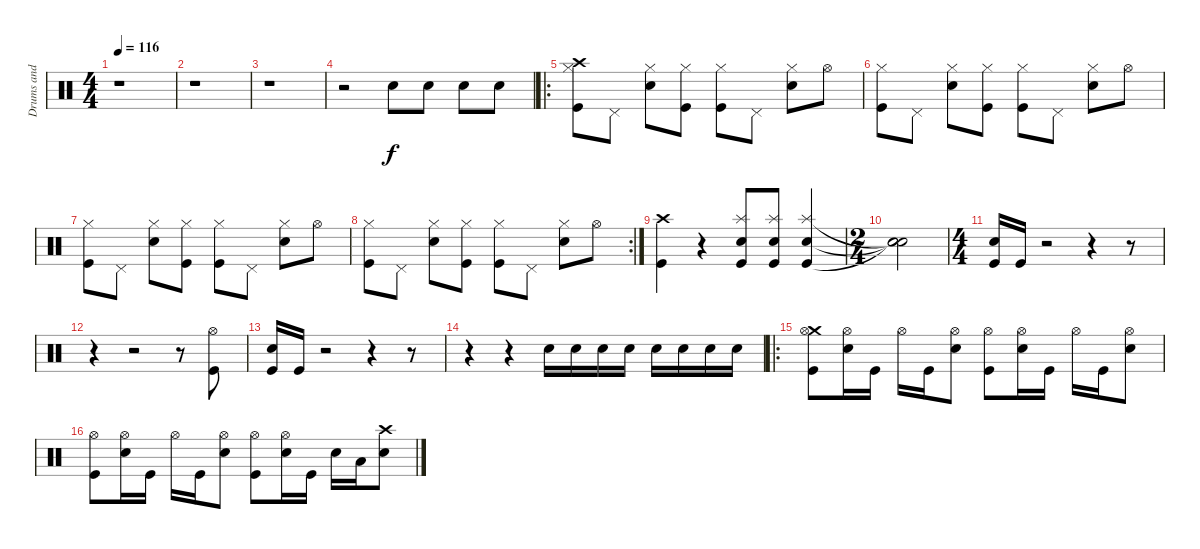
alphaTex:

\track ("Drums and Percussions" "Drums and ") {instrument percussion}
\staff {score}
\articulation defaults
\ts (4 4)
\tempo 116
\clef neutral
\ks c
r.1{dy f} |
r.1 |
r.1 |
r.2 "Electric Snare (hit)".8 "Electric Snare (hit)".8 "Electric Snare (hit)".8 "Electric Snare (hit)".8 |
\ro
("Crash high (hit)" "Hi-Hat (closed)" "Kick (hit)").8 "Pedal Hi-Hat (hit)".8 ("Electric Snare (hit)" "Hi-Hat (closed)").8 ("Hi-Hat (closed)" "Kick (hit)").8 ("Hi-Hat (closed)" "Kick (hit)").8 "Pedal Hi-Hat (hit)".8 ("Electric Snare (hit)" "Hi-Hat (closed)").8 "Hi-Hat (open)".8 |
("Hi-Hat (closed)" "Kick (hit)").8 "Pedal Hi-Hat (hit)".8 ("Electric Snare (hit)" "Hi-Hat (closed)").8 ("Hi-Hat (closed)" "Kick (hit)").8 ("Hi-Hat (closed)" "Kick (hit)").8 "Pedal Hi-Hat (hit)".8 ("Electric Snare (hit)" "Hi-Hat (closed)").8 "Hi-Hat (open)".8 |
("Hi-Hat (closed)" "Kick (hit)").8 "Pedal Hi-Hat (hit)".8 ("Electric Snare (hit)" "Hi-Hat (closed)").8 ("Hi-Hat (closed)" "Kick (hit)").8 ("Hi-Hat (closed)" "Kick (hit)").8 "Pedal Hi-Hat (hit)".8 ("Electric Snare (hit)" "Hi-Hat (closed)").8 "Hi-Hat (open)".8 |
\rc 2
("Hi-Hat (closed)" "Kick (hit)").8 "Pedal Hi-Hat (hit)".8 ("Electric Snare (hit)" "Hi-Hat (closed)").8 ("Hi-Hat (closed)" "Kick (hit)").8 ("Hi-Hat (closed)" "Kick (hit)").8 "Pedal Hi-Hat (hit)".8 ("Electric Snare (hit)" "Hi-Hat (closed)").8 "Hi-Hat (open)".8 |
("Crash high (hit)" "Kick (hit)").4 r.4 ("Splash (hit)" "Snare (hit) 2" "Kick (hit)").8 ("Splash (hit)" "Snare (hit) 2" "Kick (hit)").8 ("Splash (hit)" "Snare (hit) 2" "Kick (hit)").4 |
\ts (2 4)
("Snare (hit)"{t} "Snare (hit)"{t} "Snare (hit)"{t}).2 |
\ts (4 4)
("Snare (hit) 2" "Kick (hit)").16 "Kick (hit)".16 r.2 r.4 r.8 |
r.4 r.2 r.8 ("Hi-Hat (open)" "Kick (hit)").8 |
("Snare (hit) 2" "Kick (hit)").16 "Kick (hit)".16 r.2 r.4 r.8 |
r.4 r.4 "Snare (hit) 2".16 "Snare (hit) 2".16 "Snare (hit) 2".16 "Snare (hit) 2".16 "Electric Snare (hit)".16 "Electric Snare (hit)".16 "Electric Snare (hit)".16 "Electric Snare (hit)".16 |
\ro
("Crash medium (hit)" "Hi-Hat (open)" "Kick (hit)").8 ("Electric Snare (hit)" "Hi-Hat (open)").16 "Kick (hit)".16 "Hi-Hat (open)".16 "Kick (hit)".16 ("Electric Snare (hit)" "Hi-Hat (open)").8 ("Hi-Hat (open)" "Kick (hit)").8 ("Electric Snare (hit)" "Hi-Hat (open)").16 "Kick (hit)".16 "Hi-Hat (open)".16 "Kick (hit)".16 ("Electric Snare (hit)" "Hi-Hat (open)").8 |
("Hi-Hat (open)" "Kick (hit)").8 ("Electric Snare (hit)" "Hi-Hat (open)").16 "Kick (hit)".16 "Hi-Hat (open)".16 "Kick (hit)".16 ("Electric Snare (hit)" "Hi-Hat (open)").8 ("Hi-Hat (open)" "Kick (hit)").8 ("Electric Snare (hit)" "Hi-Hat (open)").16 "Kick (hit)".16 "Snare (hit) 2".16 "Low Floor Tom (hit)".16 ("Electric Snare (hit)" "Crash high (hit)").8
